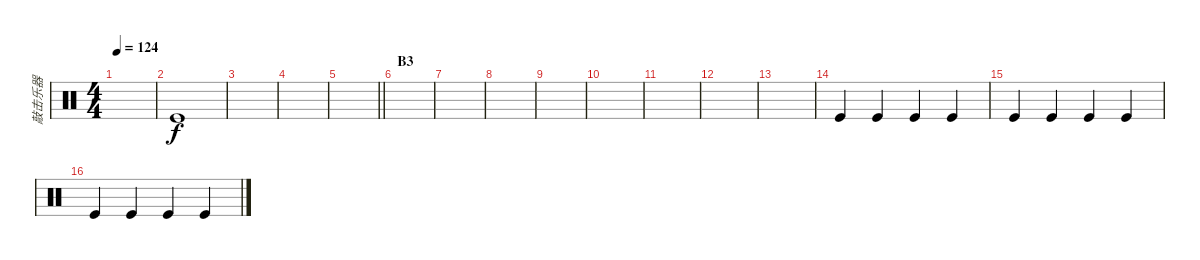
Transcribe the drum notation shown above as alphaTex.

\track ("敲击乐器" "敲击乐器") {instrument percussion}
\staff {score}
\articulation defaults
\ts (4 4)
\tempo 124
\clef neutral
\ks c
|
"Kick (hit)".1 |
|
|
\barLineRight lightlight
|
\section ("" "B3")
|
|
|
|
|
|
|
|
"Kick (hit)".4 "Kick (hit)".4 "Kick (hit)".4 "Kick (hit)".4 |
"Kick (hit)".4 "Kick (hit)".4 "Kick (hit)".4 "Kick (hit)".4 |
"Kick (hit)".4 "Kick (hit)".4 "Kick (hit)".4 "Kick (hit)".4
